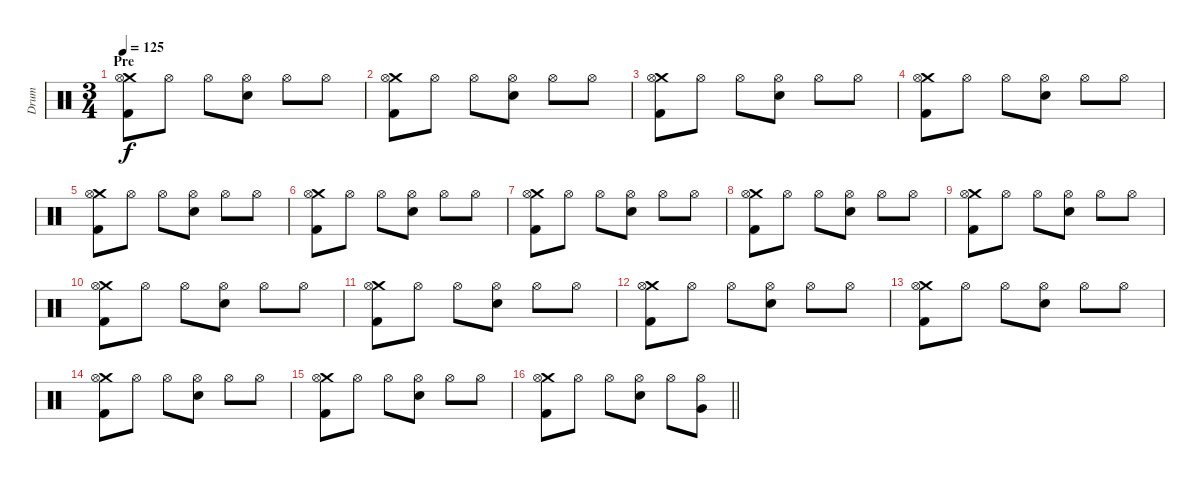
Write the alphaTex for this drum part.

\track ("Drum" "Drum") {instrument percussion}
\staff {score}
\articulation defaults
\ts (3 4)
\section ("" "Pre")
\tempo 125
\clef neutral
\ks c
("Crash medium (hit)" "Hi-Hat (open)" "Kick (hit) 2").8{dy f} "Hi-Hat (open)".8 "Hi-Hat (open)".8 ("Hi-Hat (open)" "Electric Snare (hit)").8 "Hi-Hat (open)".8 "Hi-Hat (open)".8 |
("Crash medium (hit)" "Hi-Hat (open)" "Kick (hit) 2").8 "Hi-Hat (open)".8 "Hi-Hat (open)".8 ("Hi-Hat (open)" "Electric Snare (hit)").8 "Hi-Hat (open)".8 "Hi-Hat (open)".8 |
("Crash medium (hit)" "Hi-Hat (open)" "Kick (hit) 2").8 "Hi-Hat (open)".8 "Hi-Hat (open)".8 ("Hi-Hat (open)" "Electric Snare (hit)").8 "Hi-Hat (open)".8 "Hi-Hat (open)".8 |
("Crash medium (hit)" "Hi-Hat (open)" "Kick (hit) 2").8 "Hi-Hat (open)".8 "Hi-Hat (open)".8 ("Hi-Hat (open)" "Electric Snare (hit)").8 "Hi-Hat (open)".8 "Hi-Hat (open)".8 |
("Crash medium (hit)" "Hi-Hat (open)" "Kick (hit) 2").8 "Hi-Hat (open)".8 "Hi-Hat (open)".8 ("Hi-Hat (open)" "Electric Snare (hit)").8 "Hi-Hat (open)".8 "Hi-Hat (open)".8 |
("Crash medium (hit)" "Hi-Hat (open)" "Kick (hit) 2").8 "Hi-Hat (open)".8 "Hi-Hat (open)".8 ("Hi-Hat (open)" "Electric Snare (hit)").8 "Hi-Hat (open)".8 "Hi-Hat (open)".8 |
("Crash medium (hit)" "Hi-Hat (open)" "Kick (hit) 2").8 "Hi-Hat (open)".8 "Hi-Hat (open)".8 ("Hi-Hat (open)" "Electric Snare (hit)").8 "Hi-Hat (open)".8 "Hi-Hat (open)".8 |
("Crash medium (hit)" "Hi-Hat (open)" "Kick (hit) 2").8 "Hi-Hat (open)".8 "Hi-Hat (open)".8 ("Hi-Hat (open)" "Electric Snare (hit)").8 "Hi-Hat (open)".8 "Hi-Hat (open)".8 |
("Crash medium (hit)" "Hi-Hat (open)" "Kick (hit) 2").8 "Hi-Hat (open)".8 "Hi-Hat (open)".8 ("Hi-Hat (open)" "Electric Snare (hit)").8 "Hi-Hat (open)".8 "Hi-Hat (open)".8 |
("Crash medium (hit)" "Hi-Hat (open)" "Kick (hit) 2").8 "Hi-Hat (open)".8 "Hi-Hat (open)".8 ("Hi-Hat (open)" "Electric Snare (hit)").8 "Hi-Hat (open)".8 "Hi-Hat (open)".8 |
("Crash medium (hit)" "Hi-Hat (open)" "Kick (hit) 2").8 "Hi-Hat (open)".8 "Hi-Hat (open)".8 ("Hi-Hat (open)" "Electric Snare (hit)").8 "Hi-Hat (open)".8 "Hi-Hat (open)".8 |
("Crash medium (hit)" "Hi-Hat (open)" "Kick (hit) 2").8 "Hi-Hat (open)".8 "Hi-Hat (open)".8 ("Hi-Hat (open)" "Electric Snare (hit)").8 "Hi-Hat (open)".8 "Hi-Hat (open)".8 |
("Crash medium (hit)" "Hi-Hat (open)" "Kick (hit) 2").8 "Hi-Hat (open)".8 "Hi-Hat (open)".8 ("Hi-Hat (open)" "Electric Snare (hit)").8 "Hi-Hat (open)".8 "Hi-Hat (open)".8 |
("Crash medium (hit)" "Hi-Hat (open)" "Kick (hit) 2").8 "Hi-Hat (open)".8 "Hi-Hat (open)".8 ("Hi-Hat (open)" "Electric Snare (hit)").8 "Hi-Hat (open)".8 "Hi-Hat (open)".8 |
("Crash medium (hit)" "Hi-Hat (open)" "Kick (hit) 2").8 "Hi-Hat (open)".8 "Hi-Hat (open)".8 ("Hi-Hat (open)" "Electric Snare (hit)").8 "Hi-Hat (open)".8 "Hi-Hat (open)".8 |
\barLineRight lightlight
("Crash medium (hit)" "Hi-Hat (open)" "Kick (hit) 2").8 "Hi-Hat (open)".8 "Hi-Hat (open)".8 ("Hi-Hat (open)" "Electric Snare (hit)").8 "Hi-Hat (open)".8 ("Hi-Hat (open)" "Very Low Tom (hit)").8
